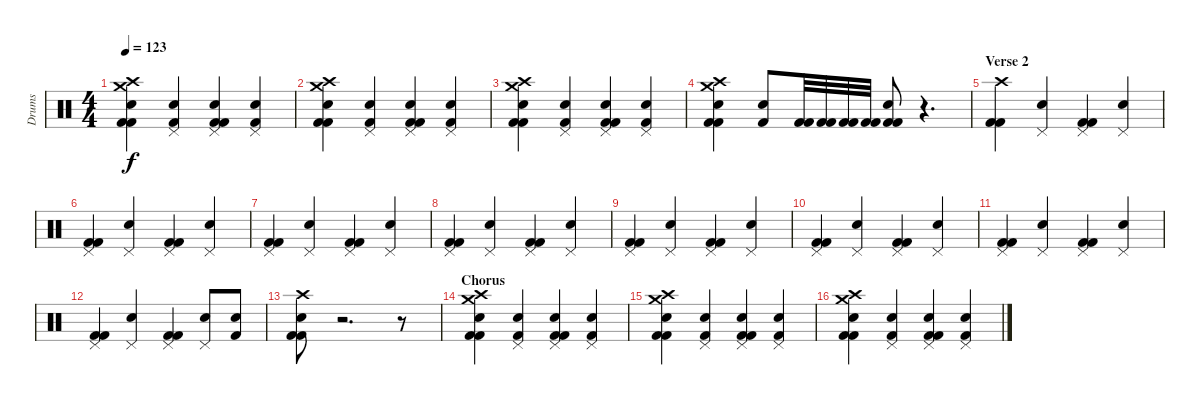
\track ("Drums" "Drums") {instrument percussion}
\staff {score}
\articulation defaults
\ts (4 4)
\tempo 123
\clef neutral
\ks c
("Crash medium (hit)" "Crash high (hit)" "Snare (hit) 2" "Kick (hit) 2" "Kick (hit) 2").4{dy f} ("Pedal Hi-Hat (hit)" "Snare (hit) 2" "Kick (hit) 2").4 ("Pedal Hi-Hat (hit)" "Snare (hit) 2" "Kick (hit) 2" "Kick (hit) 2").4 ("Pedal Hi-Hat (hit)" "Snare (hit) 2" "Kick (hit) 2").4 |
("Crash medium (hit)" "Crash high (hit)" "Snare (hit) 2" "Kick (hit) 2" "Kick (hit) 2").4 ("Pedal Hi-Hat (hit)" "Snare (hit) 2" "Kick (hit) 2").4 ("Pedal Hi-Hat (hit)" "Snare (hit) 2" "Kick (hit) 2" "Kick (hit) 2").4 ("Pedal Hi-Hat (hit)" "Snare (hit) 2" "Kick (hit) 2").4 |
("Crash medium (hit)" "Crash high (hit)" "Snare (hit) 2" "Kick (hit) 2" "Kick (hit) 2").4 ("Pedal Hi-Hat (hit)" "Snare (hit) 2" "Kick (hit) 2").4 ("Pedal Hi-Hat (hit)" "Snare (hit) 2" "Kick (hit) 2" "Kick (hit) 2").4 ("Pedal Hi-Hat (hit)" "Snare (hit) 2" "Kick (hit) 2").4 |
("Crash medium (hit)" "Crash high (hit)" "Snare (hit) 2" "Kick (hit) 2" "Kick (hit) 2").4 ("Snare (hit) 2" "Kick (hit) 2").8 ("Kick (hit) 2" "Kick (hit) 2").32 ("Kick (hit) 2" "Kick (hit) 2").32 ("Kick (hit) 2" "Kick (hit) 2").32 ("Kick (hit) 2" "Kick (hit) 2").32 ("Snare (hit) 2" "Kick (hit) 2" "Kick (hit) 2").8 r.4{d} |
\section ("" "Verse 2")
("Crash high (hit)" "Kick (hit) 2" "Kick (hit) 2").4 ("Pedal Hi-Hat (hit)" "Snare (hit) 2").4 ("Pedal Hi-Hat (hit)" "Kick (hit) 2" "Kick (hit) 2").4 ("Pedal Hi-Hat (hit)" "Snare (hit) 2").4 |
("Pedal Hi-Hat (hit)" "Kick (hit) 2" "Kick (hit) 2").4 ("Pedal Hi-Hat (hit)" "Snare (hit) 2").4 ("Pedal Hi-Hat (hit)" "Kick (hit) 2" "Kick (hit) 2").4 ("Pedal Hi-Hat (hit)" "Snare (hit) 2").4 |
("Pedal Hi-Hat (hit)" "Kick (hit) 2" "Kick (hit) 2").4 ("Pedal Hi-Hat (hit)" "Snare (hit) 2").4 ("Pedal Hi-Hat (hit)" "Kick (hit) 2" "Kick (hit) 2").4 ("Pedal Hi-Hat (hit)" "Snare (hit) 2").4 |
("Pedal Hi-Hat (hit)" "Kick (hit) 2" "Kick (hit) 2").4 ("Pedal Hi-Hat (hit)" "Snare (hit) 2").4 ("Pedal Hi-Hat (hit)" "Kick (hit) 2" "Kick (hit) 2").4 ("Pedal Hi-Hat (hit)" "Snare (hit) 2").4 |
("Pedal Hi-Hat (hit)" "Kick (hit) 2" "Kick (hit) 2").4 ("Pedal Hi-Hat (hit)" "Snare (hit) 2").4 ("Pedal Hi-Hat (hit)" "Kick (hit) 2" "Kick (hit) 2").4 ("Pedal Hi-Hat (hit)" "Snare (hit) 2").4 |
("Pedal Hi-Hat (hit)" "Kick (hit) 2" "Kick (hit) 2").4 ("Pedal Hi-Hat (hit)" "Snare (hit) 2").4 ("Pedal Hi-Hat (hit)" "Kick (hit) 2" "Kick (hit) 2").4 ("Pedal Hi-Hat (hit)" "Snare (hit) 2").4 |
("Pedal Hi-Hat (hit)" "Kick (hit) 2" "Kick (hit) 2").4 ("Pedal Hi-Hat (hit)" "Snare (hit) 2").4 ("Pedal Hi-Hat (hit)" "Kick (hit) 2" "Kick (hit) 2").4 ("Pedal Hi-Hat (hit)" "Snare (hit) 2").4 |
("Pedal Hi-Hat (hit)" "Kick (hit) 2" "Kick (hit) 2").4 ("Pedal Hi-Hat (hit)" "Snare (hit) 2").4 ("Pedal Hi-Hat (hit)" "Kick (hit) 2" "Kick (hit) 2").4 ("Pedal Hi-Hat (hit)" "Snare (hit) 2").8 ("Snare (hit) 2" "Kick (hit) 2").8 |
("Crash high (hit)" "Snare (hit) 2" "Kick (hit) 2" "Kick (hit) 2").8 r.2{d} r.8 |
\section ("" "Chorus")
("Crash medium (hit)" "Crash high (hit)" "Snare (hit) 2" "Kick (hit) 2" "Kick (hit) 2").4 ("Pedal Hi-Hat (hit)" "Snare (hit) 2" "Kick (hit) 2").4 ("Pedal Hi-Hat (hit)" "Snare (hit) 2" "Kick (hit) 2" "Kick (hit) 2").4 ("Pedal Hi-Hat (hit)" "Snare (hit) 2" "Kick (hit) 2").4 |
("Crash medium (hit)" "Crash high (hit)" "Snare (hit) 2" "Kick (hit) 2" "Kick (hit) 2").4 ("Pedal Hi-Hat (hit)" "Snare (hit) 2" "Kick (hit) 2").4 ("Pedal Hi-Hat (hit)" "Snare (hit) 2" "Kick (hit) 2" "Kick (hit) 2").4 ("Pedal Hi-Hat (hit)" "Snare (hit) 2" "Kick (hit) 2").4 |
("Crash medium (hit)" "Crash high (hit)" "Snare (hit) 2" "Kick (hit) 2" "Kick (hit) 2").4 ("Pedal Hi-Hat (hit)" "Snare (hit) 2" "Kick (hit) 2").4 ("Pedal Hi-Hat (hit)" "Snare (hit) 2" "Kick (hit) 2" "Kick (hit) 2").4 ("Pedal Hi-Hat (hit)" "Snare (hit) 2" "Kick (hit) 2").4
